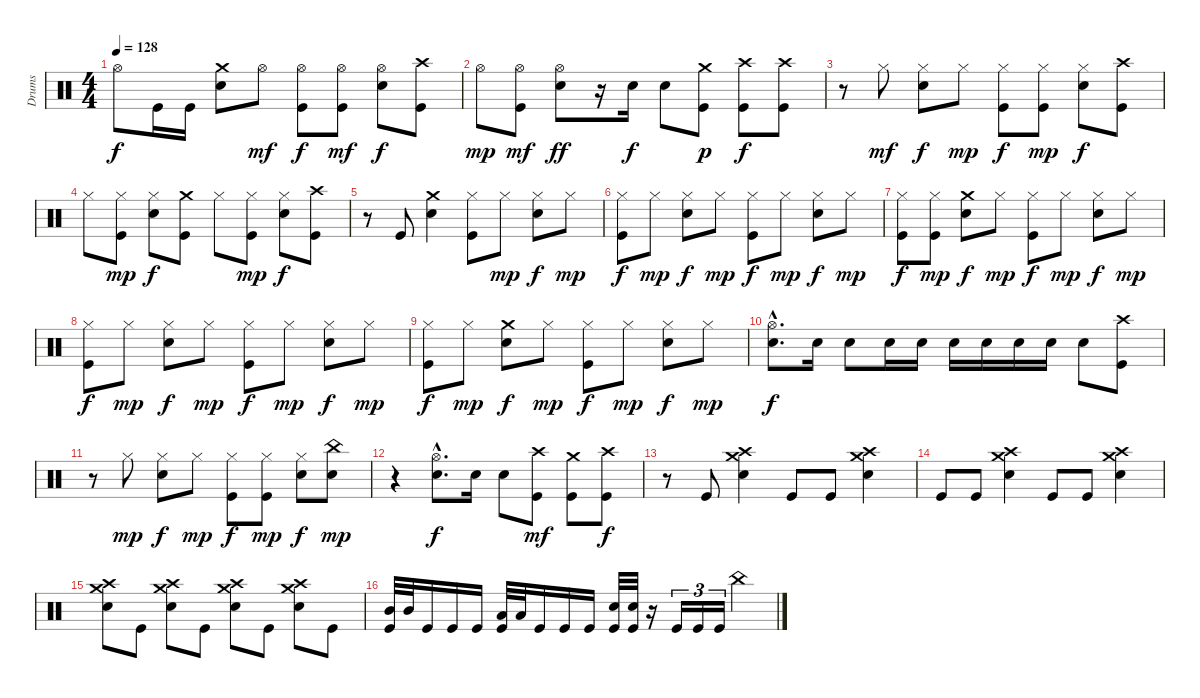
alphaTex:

\track ("Drums" "Drums") {instrument percussion}
\staff {score}
\articulation defaults
\ts (4 4)
\tempo 128
\clef neutral
\ks c "Hi-Hat (open)".8{dy f} "Kick (hit)".16 "Kick (hit)".16
("Crash medium (hit)" "Snare (hit) 2").8 "Hi-Hat (open)".8{dy mf} ("Hi-Hat (open)" "Kick (hit)").8{dy f} ("Hi-Hat (open)" "Kick (hit)").8{dy mf} ("Hi-Hat (open)" "Snare (hit) 2").8{dy f} ("Crash high (hit)" "Kick (hit)").8 |
"Hi-Hat (open)".8{dy mp} ("Hi-Hat (open)" "Kick (hit)").8{dy mf} ("Hi-Hat (open)" "Snare (hit) 2").8{dy ff} r.16 "Snare (hit) 2".16{dy f} "Snare (hit) 2".8 ("Crash medium (hit)" "Kick (hit)").8{dy p} ("Crash high (hit)" "Kick (hit)").8{dy f} ("Crash high (hit)" "Kick (hit)").8 |
r.8 "Hi-Hat (closed)".8{dy mf} ("Hi-Hat (closed)" "Snare (hit) 2").8{dy f} "Hi-Hat (closed)".8{dy mp} ("Hi-Hat (closed)" "Kick (hit)").8{dy f} ("Hi-Hat (closed)" "Kick (hit)").8{dy mp} ("Hi-Hat (closed)" "Snare (hit) 2").8{dy f} ("Crash high (hit)" "Kick (hit)").8 |
"Hi-Hat (closed)".8 ("Hi-Hat (closed)" "Kick (hit)").8{dy mp} ("Hi-Hat (closed)" "Snare (hit) 2").8{dy f} ("Crash medium (hit)" "Kick (hit)").8 "Hi-Hat (closed)".8 ("Hi-Hat (closed)" "Kick (hit)").8{dy mp} ("Hi-Hat (closed)" "Snare (hit) 2").8{dy f} ("Crash high (hit)" "Kick (hit)").8 |
r.8 "Kick (hit)".8 ("Crash medium (hit)" "Snare (hit) 2").4 ("Hi-Hat (closed)" "Kick (hit)").8 "Hi-Hat (closed)".8{dy mp} ("Hi-Hat (closed)" "Snare (hit) 2").8{dy f} "Hi-Hat (closed)".8{dy mp} |
("Hi-Hat (closed)" "Kick (hit)").8{dy f} "Hi-Hat (closed)".8{dy mp} ("Hi-Hat (closed)" "Snare (hit) 2").8{dy f} "Hi-Hat (closed)".8{dy mp} ("Hi-Hat (closed)" "Kick (hit)").8{dy f} "Hi-Hat (closed)".8{dy mp} ("Hi-Hat (closed)" "Snare (hit) 2").8{dy f} "Hi-Hat (closed)".8{dy mp} |
("Hi-Hat (closed)" "Kick (hit)").8{dy f} ("Hi-Hat (closed)" "Kick (hit)").8{dy mp} ("Crash medium (hit)" "Snare (hit) 2").8{dy f} "Hi-Hat (closed)".8{dy mp} ("Hi-Hat (closed)" "Kick (hit)").8{dy f} "Hi-Hat (closed)".8{dy mp} ("Hi-Hat (closed)" "Snare (hit) 2").8{dy f} "Hi-Hat (closed)".8{dy mp} |
("Hi-Hat (closed)" "Kick (hit)").8{dy f} "Hi-Hat (closed)".8{dy mp} ("Hi-Hat (closed)" "Snare (hit) 2").8{dy f} "Hi-Hat (closed)".8{dy mp} ("Hi-Hat (closed)" "Kick (hit)").8{dy f} "Hi-Hat (closed)".8{dy mp} ("Hi-Hat (closed)" "Snare (hit) 2").8{dy f} "Hi-Hat (closed)".8{dy mp} |
("Hi-Hat (closed)" "Kick (hit)").8{dy f} "Hi-Hat (closed)".8{dy mp} ("Crash medium (hit)" "Snare (hit) 2").8{dy f} "Hi-Hat (closed)".8{dy mp} ("Hi-Hat (closed)" "Kick (hit)").8{dy f} "Hi-Hat (closed)".8{dy mp} ("Hi-Hat (closed)" "Snare (hit) 2").8{dy f} "Hi-Hat (closed)".8{dy mp} |
("Hi-Hat (open)"{hac} "Snare (hit) 2"{hac}).8{d dy f} "Snare (hit) 2".16 "Snare (hit) 2".8 "Snare (hit) 2".16 "Snare (hit) 2".16 "Snare (hit) 2".16 "Snare (hit) 2".16 "Snare (hit) 2".16 "Snare (hit) 2".16 "Snare (hit) 2".8 ("Crash high (hit)" "Kick (hit)").8 |
r.8 "Hi-Hat (closed)".8{dy mp} ("Hi-Hat (closed)" "Snare (hit) 2").8{dy f} "Hi-Hat (closed)".8{dy mp} ("Hi-Hat (closed)" "Kick (hit)").8{dy f} ("Hi-Hat (closed)" "Kick (hit)").8{dy mp} ("Hi-Hat (closed)" "Snare (hit) 2").8{dy f} ("China (hit)" "Snare (hit) 2").8{dy mp} |
r.4 ("Hi-Hat (open)"{hac} "Snare (hit) 2"{hac}).8{d dy f} "Snare (hit) 2".16 "Snare (hit) 2".8 ("Crash high (hit)" "Kick (hit)").8{dy mf} ("Crash medium (hit)" "Kick (hit)").8 ("Crash high (hit)" "Kick (hit)").8{dy f} |
r.8 "Kick (hit)".8 ("Crash high (hit)" "Crash medium (hit)" "Snare (hit) 2").4 "Kick (hit)".8 "Kick (hit)".8 ("Crash high (hit)" "Crash medium (hit)" "Snare (hit) 2").4 |
"Kick (hit)".8 "Kick (hit)".8 ("Crash high (hit)" "Crash medium (hit)" "Snare (hit) 2").4 "Kick (hit)".8 "Kick (hit)".8 ("Crash high (hit)" "Crash medium (hit)" "Snare (hit) 2").4 |
("Crash high (hit)" "Crash medium (hit)" "Snare (hit) 2").8 "Kick (hit)".8 ("Crash high (hit)" "Crash medium (hit)" "Snare (hit) 2").8 "Kick (hit)".8 ("Crash high (hit)" "Crash medium (hit)" "Snare (hit) 2").8 "Kick (hit)".8 ("Crash high (hit)" "Crash medium (hit)" "Snare (hit) 2").8 "Kick (hit)".8 |
("Mid Tom (hit)" "Kick (hit)").32 "Mid Tom (hit)".32 "Kick (hit)".16 "Kick (hit)".16 "Kick (hit)".16 ("Low Tom (hit)" "Kick (hit)").32 "Low Tom (hit)".32 "Kick (hit)".16 "Kick (hit)".16 "Kick (hit)".16 ("Snare (hit) 2" "Kick (hit)").32 ("Snare (hit) 2" "Kick (hit)").32 r.16 "Kick (hit)".16{tu (3 2)} "Kick (hit)".16{tu (3 2)} "Kick (hit)".16{tu (3 2)} "China (hit)".4
